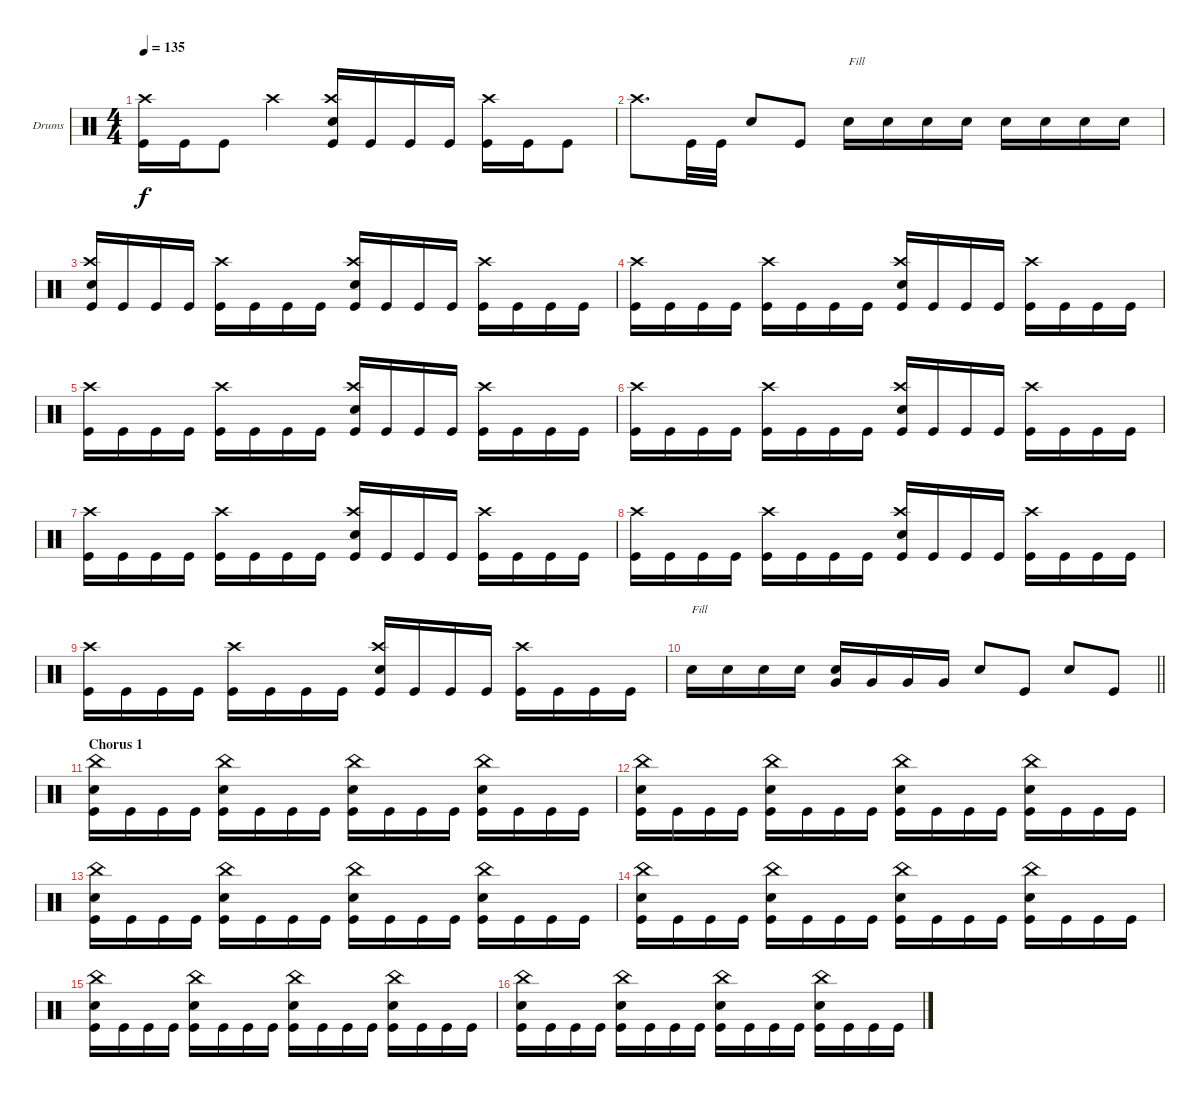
\bracketExtendMode groupsimilarinstruments
\firstSystemTrackNameOrientation horizontal
\otherSystemsTrackNameOrientation horizontal
\track ("Drumkit" "Drums") {instrument percussion}
\staff {score}
\articulation defaults
\ts (4 4)
\tempo 135
\clef neutral
\ks c
("Kick (hit)" "Crash high (hit)").16{dy f} "Kick (hit)".16 "Kick (hit)".8 "Crash high (hit)".4 ("Crash high (hit)" "Kick (hit)" "Snare (hit) 2").16 "Kick (hit)".16 "Kick (hit)".16 "Kick (hit)".16 ("Kick (hit)" "Crash high (hit)").16 "Kick (hit)".16 "Kick (hit)".8 |
"Crash high (hit)".8{d} "Kick (hit)".32 "Kick (hit)".32 "Snare (hit) 2".8 "Kick (hit)".8 "Snare (hit) 2".16{txt "Fill"} "Snare (hit) 2".16 "Snare (hit) 2".16 "Snare (hit) 2".16 "Snare (hit) 2".16 "Snare (hit) 2".16 "Snare (hit) 2".16 "Snare (hit) 2".16 |
("Kick (hit)" "Crash high (hit)" "Snare (hit) 2").16 "Kick (hit)".16 "Kick (hit)".16 "Kick (hit)".16 ("Crash high (hit)" "Kick (hit)").16 "Kick (hit)".16 "Kick (hit)".16 "Kick (hit)".16 ("Crash high (hit)" "Snare (hit) 2" "Kick (hit)").16 "Kick (hit)".16 "Kick (hit)".16 "Kick (hit)".16 ("Kick (hit)" "Crash high (hit)").16 "Kick (hit)".16 "Kick (hit)".16 "Kick (hit)".16 |
("Kick (hit)" "Crash high (hit)").16 "Kick (hit)".16 "Kick (hit)".16 "Kick (hit)".16 ("Crash high (hit)" "Kick (hit)").16 "Kick (hit)".16 "Kick (hit)".16 "Kick (hit)".16 ("Crash high (hit)" "Snare (hit) 2" "Kick (hit)").16 "Kick (hit)".16 "Kick (hit)".16 "Kick (hit)".16 ("Kick (hit)" "Crash high (hit)").16 "Kick (hit)".16 "Kick (hit)".16 "Kick (hit)".16 |
("Kick (hit)" "Crash high (hit)").16 "Kick (hit)".16 "Kick (hit)".16 "Kick (hit)".16 ("Crash high (hit)" "Kick (hit)").16 "Kick (hit)".16 "Kick (hit)".16 "Kick (hit)".16 ("Crash high (hit)" "Snare (hit) 2" "Kick (hit)").16 "Kick (hit)".16 "Kick (hit)".16 "Kick (hit)".16 ("Kick (hit)" "Crash high (hit)").16 "Kick (hit)".16 "Kick (hit)".16 "Kick (hit)".16 |
("Kick (hit)" "Crash high (hit)").16 "Kick (hit)".16 "Kick (hit)".16 "Kick (hit)".16 ("Crash high (hit)" "Kick (hit)").16 "Kick (hit)".16 "Kick (hit)".16 "Kick (hit)".16 ("Crash high (hit)" "Snare (hit) 2" "Kick (hit)").16 "Kick (hit)".16 "Kick (hit)".16 "Kick (hit)".16 ("Kick (hit)" "Crash high (hit)").16 "Kick (hit)".16 "Kick (hit)".16 "Kick (hit)".16 |
("Kick (hit)" "Crash high (hit)").16 "Kick (hit)".16 "Kick (hit)".16 "Kick (hit)".16 ("Crash high (hit)" "Kick (hit)").16 "Kick (hit)".16 "Kick (hit)".16 "Kick (hit)".16 ("Crash high (hit)" "Snare (hit) 2" "Kick (hit)").16 "Kick (hit)".16 "Kick (hit)".16 "Kick (hit)".16 ("Kick (hit)" "Crash high (hit)").16 "Kick (hit)".16 "Kick (hit)".16 "Kick (hit)".16 |
("Kick (hit)" "Crash high (hit)").16 "Kick (hit)".16 "Kick (hit)".16 "Kick (hit)".16 ("Crash high (hit)" "Kick (hit)").16 "Kick (hit)".16 "Kick (hit)".16 "Kick (hit)".16 ("Crash high (hit)" "Snare (hit) 2" "Kick (hit)").16 "Kick (hit)".16 "Kick (hit)".16 "Kick (hit)".16 ("Kick (hit)" "Crash high (hit)").16 "Kick (hit)".16 "Kick (hit)".16 "Kick (hit)".16 |
("Kick (hit)" "Crash high (hit)").16 "Kick (hit)".16 "Kick (hit)".16 "Kick (hit)".16 ("Crash high (hit)" "Kick (hit)").16 "Kick (hit)".16 "Kick (hit)".16 "Kick (hit)".16 ("Crash high (hit)" "Snare (hit) 2" "Kick (hit)").16 "Kick (hit)".16 "Kick (hit)".16 "Kick (hit)".16 ("Kick (hit)" "Crash high (hit)").16 "Kick (hit)".16 "Kick (hit)".16 "Kick (hit)".16 |
\barLineRight lightlight "Snare (hit) 2".16{txt "Fill"} "Snare (hit) 2".16 "Snare (hit) 2".16 "Snare (hit) 2".16
("Snare (hit) 2" "Very Low Tom (hit)").16 "Very Low Tom (hit)".16 "Very Low Tom (hit)".16 "Very Low Tom (hit)".16 "Snare (hit) 2".8 "Kick (hit)".8 "Snare (hit) 2".8 "Kick (hit)".8 |
\section ("" "Chorus 1")
("Kick (hit)" "Snare (hit) 2" "China (hit)").16 "Kick (hit)".16 "Kick (hit)".16 "Kick (hit)".16 ("Kick (hit)" "Snare (hit) 2" "China (hit)").16 "Kick (hit)".16 "Kick (hit)".16 "Kick (hit)".16 ("Kick (hit)" "Snare (hit) 2" "China (hit)").16 "Kick (hit)".16 "Kick (hit)".16 "Kick (hit)".16 ("Kick (hit)" "Snare (hit) 2" "China (hit)").16 "Kick (hit)".16 "Kick (hit)".16 "Kick (hit)".16 |
("Kick (hit)" "Snare (hit) 2" "China (hit)").16 "Kick (hit)".16 "Kick (hit)".16 "Kick (hit)".16 ("Kick (hit)" "Snare (hit) 2" "China (hit)").16 "Kick (hit)".16 "Kick (hit)".16 "Kick (hit)".16 ("Kick (hit)" "Snare (hit) 2" "China (hit)").16 "Kick (hit)".16 "Kick (hit)".16 "Kick (hit)".16 ("Kick (hit)" "Snare (hit) 2" "China (hit)").16 "Kick (hit)".16 "Kick (hit)".16 "Kick (hit)".16 |
("Kick (hit)" "Snare (hit) 2" "China (hit)").16 "Kick (hit)".16 "Kick (hit)".16 "Kick (hit)".16 ("Kick (hit)" "Snare (hit) 2" "China (hit)").16 "Kick (hit)".16 "Kick (hit)".16 "Kick (hit)".16 ("Kick (hit)" "Snare (hit) 2" "China (hit)").16 "Kick (hit)".16 "Kick (hit)".16 "Kick (hit)".16 ("Kick (hit)" "Snare (hit) 2" "China (hit)").16 "Kick (hit)".16 "Kick (hit)".16 "Kick (hit)".16 |
("Kick (hit)" "Snare (hit) 2" "China (hit)").16 "Kick (hit)".16 "Kick (hit)".16 "Kick (hit)".16 ("Kick (hit)" "Snare (hit) 2" "China (hit)").16 "Kick (hit)".16 "Kick (hit)".16 "Kick (hit)".16 ("Kick (hit)" "Snare (hit) 2" "China (hit)").16 "Kick (hit)".16 "Kick (hit)".16 "Kick (hit)".16 ("Kick (hit)" "Snare (hit) 2" "China (hit)").16 "Kick (hit)".16 "Kick (hit)".16 "Kick (hit)".16 |
("Kick (hit)" "Snare (hit) 2" "China (hit)").16 "Kick (hit)".16 "Kick (hit)".16 "Kick (hit)".16 ("Kick (hit)" "Snare (hit) 2" "China (hit)").16 "Kick (hit)".16 "Kick (hit)".16 "Kick (hit)".16 ("Kick (hit)" "Snare (hit) 2" "China (hit)").16 "Kick (hit)".16 "Kick (hit)".16 "Kick (hit)".16 ("Kick (hit)" "Snare (hit) 2" "China (hit)").16 "Kick (hit)".16 "Kick (hit)".16 "Kick (hit)".16 |
("Kick (hit)" "Snare (hit) 2" "China (hit)").16 "Kick (hit)".16 "Kick (hit)".16 "Kick (hit)".16 ("Kick (hit)" "Snare (hit) 2" "China (hit)").16 "Kick (hit)".16 "Kick (hit)".16 "Kick (hit)".16 ("Kick (hit)" "Snare (hit) 2" "China (hit)").16 "Kick (hit)".16 "Kick (hit)".16 "Kick (hit)".16 ("Kick (hit)" "Snare (hit) 2" "China (hit)").16 "Kick (hit)".16 "Kick (hit)".16 "Kick (hit)".16
